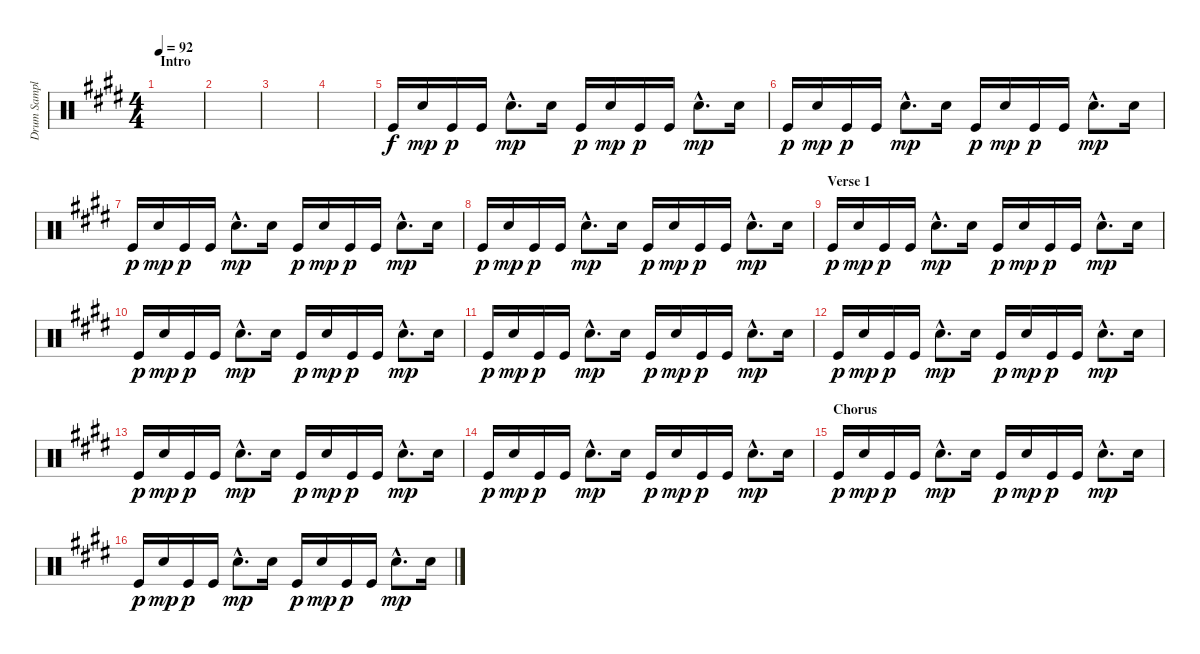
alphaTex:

\track ("Drum Sampler" "Drum Sampl") {instrument percussion}
\staff {score}
\articulation defaults
\ts (4 4)
\section ("" "Intro")
\tempo 92
\clef neutral
\ks e
|
|
|
|
"Kick (hit)".16 "Electric Snare (hit)".16{dy mp} "Kick (hit)".16{dy p} "Kick (hit)".16 "Electric Snare (hit)"{hac}.8{d dy mp} "Electric Snare (hit)".16 "Kick (hit)".16{dy p} "Electric Snare (hit)".16{dy mp} "Kick (hit)".16{dy p} "Kick (hit)".16 "Electric Snare (hit)"{hac}.8{d dy mp} "Electric Snare (hit)".16 |
"Kick (hit)".16{dy p} "Electric Snare (hit)".16{dy mp} "Kick (hit)".16{dy p} "Kick (hit)".16 "Electric Snare (hit)"{hac}.8{d dy mp} "Electric Snare (hit)".16 "Kick (hit)".16{dy p} "Electric Snare (hit)".16{dy mp} "Kick (hit)".16{dy p} "Kick (hit)".16 "Electric Snare (hit)"{hac}.8{d dy mp} "Electric Snare (hit)".16 |
"Kick (hit)".16{dy p} "Electric Snare (hit)".16{dy mp} "Kick (hit)".16{dy p} "Kick (hit)".16 "Electric Snare (hit)"{hac}.8{d dy mp} "Electric Snare (hit)".16 "Kick (hit)".16{dy p} "Electric Snare (hit)".16{dy mp} "Kick (hit)".16{dy p} "Kick (hit)".16 "Electric Snare (hit)"{hac}.8{d dy mp} "Electric Snare (hit)".16 |
"Kick (hit)".16{dy p} "Electric Snare (hit)".16{dy mp} "Kick (hit)".16{dy p} "Kick (hit)".16 "Electric Snare (hit)"{hac}.8{d dy mp} "Electric Snare (hit)".16 "Kick (hit)".16{dy p} "Electric Snare (hit)".16{dy mp} "Kick (hit)".16{dy p} "Kick (hit)".16 "Electric Snare (hit)"{hac}.8{d dy mp} "Electric Snare (hit)".16 |
\section ("" "Verse 1")
"Kick (hit)".16{dy p} "Electric Snare (hit)".16{dy mp} "Kick (hit)".16{dy p} "Kick (hit)".16 "Electric Snare (hit)"{hac}.8{d dy mp} "Electric Snare (hit)".16 "Kick (hit)".16{dy p} "Electric Snare (hit)".16{dy mp} "Kick (hit)".16{dy p} "Kick (hit)".16 "Electric Snare (hit)"{hac}.8{d dy mp} "Electric Snare (hit)".16 |
"Kick (hit)".16{dy p} "Electric Snare (hit)".16{dy mp} "Kick (hit)".16{dy p} "Kick (hit)".16 "Electric Snare (hit)"{hac}.8{d dy mp} "Electric Snare (hit)".16 "Kick (hit)".16{dy p} "Electric Snare (hit)".16{dy mp} "Kick (hit)".16{dy p} "Kick (hit)".16 "Electric Snare (hit)"{hac}.8{d dy mp} "Electric Snare (hit)".16 |
"Kick (hit)".16{dy p} "Electric Snare (hit)".16{dy mp} "Kick (hit)".16{dy p} "Kick (hit)".16 "Electric Snare (hit)"{hac}.8{d dy mp} "Electric Snare (hit)".16 "Kick (hit)".16{dy p} "Electric Snare (hit)".16{dy mp} "Kick (hit)".16{dy p} "Kick (hit)".16 "Electric Snare (hit)"{hac}.8{d dy mp} "Electric Snare (hit)".16 |
"Kick (hit)".16{dy p} "Electric Snare (hit)".16{dy mp} "Kick (hit)".16{dy p} "Kick (hit)".16 "Electric Snare (hit)"{hac}.8{d dy mp} "Electric Snare (hit)".16 "Kick (hit)".16{dy p} "Electric Snare (hit)".16{dy mp} "Kick (hit)".16{dy p} "Kick (hit)".16 "Electric Snare (hit)"{hac}.8{d dy mp} "Electric Snare (hit)".16 |
"Kick (hit)".16{dy p} "Electric Snare (hit)".16{dy mp} "Kick (hit)".16{dy p} "Kick (hit)".16 "Electric Snare (hit)"{hac}.8{d dy mp} "Electric Snare (hit)".16 "Kick (hit)".16{dy p} "Electric Snare (hit)".16{dy mp} "Kick (hit)".16{dy p} "Kick (hit)".16 "Electric Snare (hit)"{hac}.8{d dy mp} "Electric Snare (hit)".16 |
"Kick (hit)".16{dy p} "Electric Snare (hit)".16{dy mp} "Kick (hit)".16{dy p} "Kick (hit)".16 "Electric Snare (hit)"{hac}.8{d dy mp} "Electric Snare (hit)".16 "Kick (hit)".16{dy p} "Electric Snare (hit)".16{dy mp} "Kick (hit)".16{dy p} "Kick (hit)".16 "Electric Snare (hit)"{hac}.8{d dy mp} "Electric Snare (hit)".16 |
\section ("" "Chorus")
"Kick (hit)".16{dy p} "Electric Snare (hit)".16{dy mp} "Kick (hit)".16{dy p} "Kick (hit)".16 "Electric Snare (hit)"{hac}.8{d dy mp} "Electric Snare (hit)".16 "Kick (hit)".16{dy p} "Electric Snare (hit)".16{dy mp} "Kick (hit)".16{dy p} "Kick (hit)".16 "Electric Snare (hit)"{hac}.8{d dy mp} "Electric Snare (hit)".16 |
"Kick (hit)".16{dy p} "Electric Snare (hit)".16{dy mp} "Kick (hit)".16{dy p} "Kick (hit)".16 "Electric Snare (hit)"{hac}.8{d dy mp} "Electric Snare (hit)".16 "Kick (hit)".16{dy p} "Electric Snare (hit)".16{dy mp} "Kick (hit)".16{dy p} "Kick (hit)".16 "Electric Snare (hit)"{hac}.8{d dy mp} "Electric Snare (hit)".16
